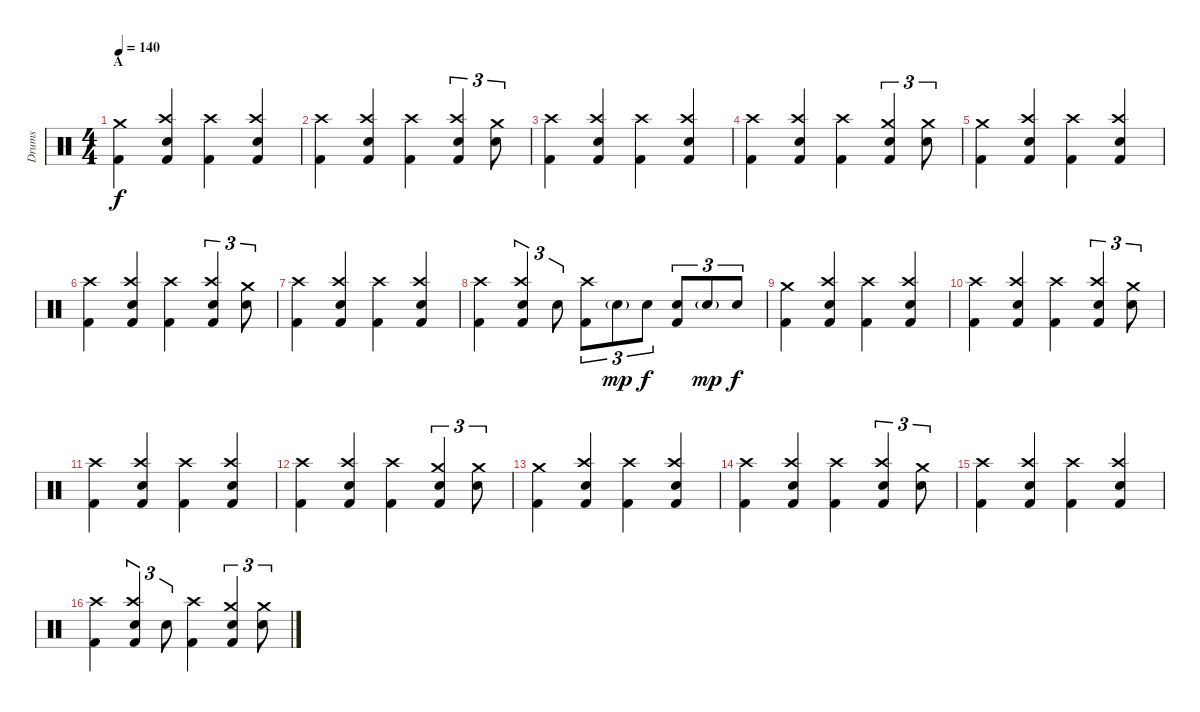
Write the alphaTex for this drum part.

\track ("Drums" "Drums") {instrument percussion}
\staff {score}
\articulation defaults
\ts (4 4)
\section ("" "A")
\tempo 140
\clef neutral
\ks c
("Kick (hit) 2" "Crash medium (hit)").4{dy f} ("Crash high (hit)" "Electric Snare (hit)" "Kick (hit) 2").4 ("Crash high (hit)" "Kick (hit) 2").4 ("Crash high (hit)" "Electric Snare (hit)" "Kick (hit) 2").4 |
("Crash high (hit)" "Kick (hit) 2").4 ("Crash high (hit)" "Electric Snare (hit)" "Kick (hit) 2").4 ("Crash high (hit)" "Kick (hit) 2").4 ("Crash high (hit)" "Electric Snare (hit)" "Kick (hit) 2").4{tu (3 2)} ("Electric Snare (hit)" "Crash medium (hit)").8{tu (3 2)} |
("Crash high (hit)" "Kick (hit) 2").4 ("Crash high (hit)" "Electric Snare (hit)" "Kick (hit) 2").4 ("Crash high (hit)" "Kick (hit) 2").4 ("Crash high (hit)" "Electric Snare (hit)" "Kick (hit) 2").4 |
("Crash high (hit)" "Kick (hit) 2").4 ("Crash high (hit)" "Electric Snare (hit)" "Kick (hit) 2").4 ("Crash high (hit)" "Kick (hit) 2").4 ("Crash medium (hit)" "Electric Snare (hit)" "Kick (hit) 2").4{tu (3 2)} ("Electric Snare (hit)" "Crash medium (hit)").8{tu (3 2)} |
("Kick (hit) 2" "Crash medium (hit)").4 ("Crash high (hit)" "Electric Snare (hit)" "Kick (hit) 2").4 ("Crash high (hit)" "Kick (hit) 2").4 ("Crash high (hit)" "Electric Snare (hit)" "Kick (hit) 2").4 |
("Crash high (hit)" "Kick (hit) 2").4 ("Crash high (hit)" "Electric Snare (hit)" "Kick (hit) 2").4 ("Crash high (hit)" "Kick (hit) 2").4 ("Crash high (hit)" "Electric Snare (hit)" "Kick (hit) 2").4{tu (3 2)} ("Electric Snare (hit)" "Crash medium (hit)").8{tu (3 2)} |
("Crash high (hit)" "Kick (hit) 2").4 ("Crash high (hit)" "Electric Snare (hit)" "Kick (hit) 2").4 ("Crash high (hit)" "Kick (hit) 2").4 ("Crash high (hit)" "Electric Snare (hit)" "Kick (hit) 2").4 |
("Crash high (hit)" "Kick (hit) 2").4 ("Crash high (hit)" "Electric Snare (hit)" "Kick (hit) 2").4{tu (3 2)} "Electric Snare (hit)".8{tu (3 2)} ("Crash high (hit)" "Kick (hit) 2").8{tu (3 2)} "Electric Snare (hit)"{g}.8{tu (3 2) dy mp} "Electric Snare (hit)".8{tu (3 2) dy f} ("Electric Snare (hit)" "Kick (hit) 2").8{tu (3 2)} "Electric Snare (hit)"{g}.8{tu (3 2) dy mp} "Electric Snare (hit)".8{tu (3 2) dy f} |
("Kick (hit) 2" "Crash medium (hit)").4 ("Crash high (hit)" "Electric Snare (hit)" "Kick (hit) 2").4 ("Crash high (hit)" "Kick (hit) 2").4 ("Crash high (hit)" "Electric Snare (hit)" "Kick (hit) 2").4 |
("Crash high (hit)" "Kick (hit) 2").4 ("Crash high (hit)" "Electric Snare (hit)" "Kick (hit) 2").4 ("Crash high (hit)" "Kick (hit) 2").4 ("Crash high (hit)" "Electric Snare (hit)" "Kick (hit) 2").4{tu (3 2)} ("Electric Snare (hit)" "Crash medium (hit)").8{tu (3 2)} |
("Crash high (hit)" "Kick (hit) 2").4 ("Crash high (hit)" "Electric Snare (hit)" "Kick (hit) 2").4 ("Crash high (hit)" "Kick (hit) 2").4 ("Crash high (hit)" "Electric Snare (hit)" "Kick (hit) 2").4 |
("Crash high (hit)" "Kick (hit) 2").4 ("Crash high (hit)" "Electric Snare (hit)" "Kick (hit) 2").4 ("Crash high (hit)" "Kick (hit) 2").4 ("Crash medium (hit)" "Electric Snare (hit)" "Kick (hit) 2").4{tu (3 2)} ("Electric Snare (hit)" "Crash medium (hit)").8{tu (3 2)} |
("Kick (hit) 2" "Crash medium (hit)").4 ("Crash high (hit)" "Electric Snare (hit)" "Kick (hit) 2").4 ("Crash high (hit)" "Kick (hit) 2").4 ("Crash high (hit)" "Electric Snare (hit)" "Kick (hit) 2").4 |
("Crash high (hit)" "Kick (hit) 2").4 ("Crash high (hit)" "Electric Snare (hit)" "Kick (hit) 2").4 ("Crash high (hit)" "Kick (hit) 2").4 ("Crash high (hit)" "Electric Snare (hit)" "Kick (hit) 2").4{tu (3 2)} ("Electric Snare (hit)" "Crash medium (hit)").8{tu (3 2)} |
("Crash high (hit)" "Kick (hit) 2").4 ("Crash high (hit)" "Electric Snare (hit)" "Kick (hit) 2").4 ("Crash high (hit)" "Kick (hit) 2").4 ("Crash high (hit)" "Electric Snare (hit)" "Kick (hit) 2").4 |
("Crash high (hit)" "Kick (hit) 2").4 ("Crash high (hit)" "Electric Snare (hit)" "Kick (hit) 2").4{tu (3 2)} "Electric Snare (hit)".8{tu (3 2)} ("Crash high (hit)" "Kick (hit) 2").4 ("Crash medium (hit)" "Electric Snare (hit)" "Kick (hit) 2").4{tu (3 2)} ("Electric Snare (hit)" "Crash medium (hit)").8{tu (3 2)}
